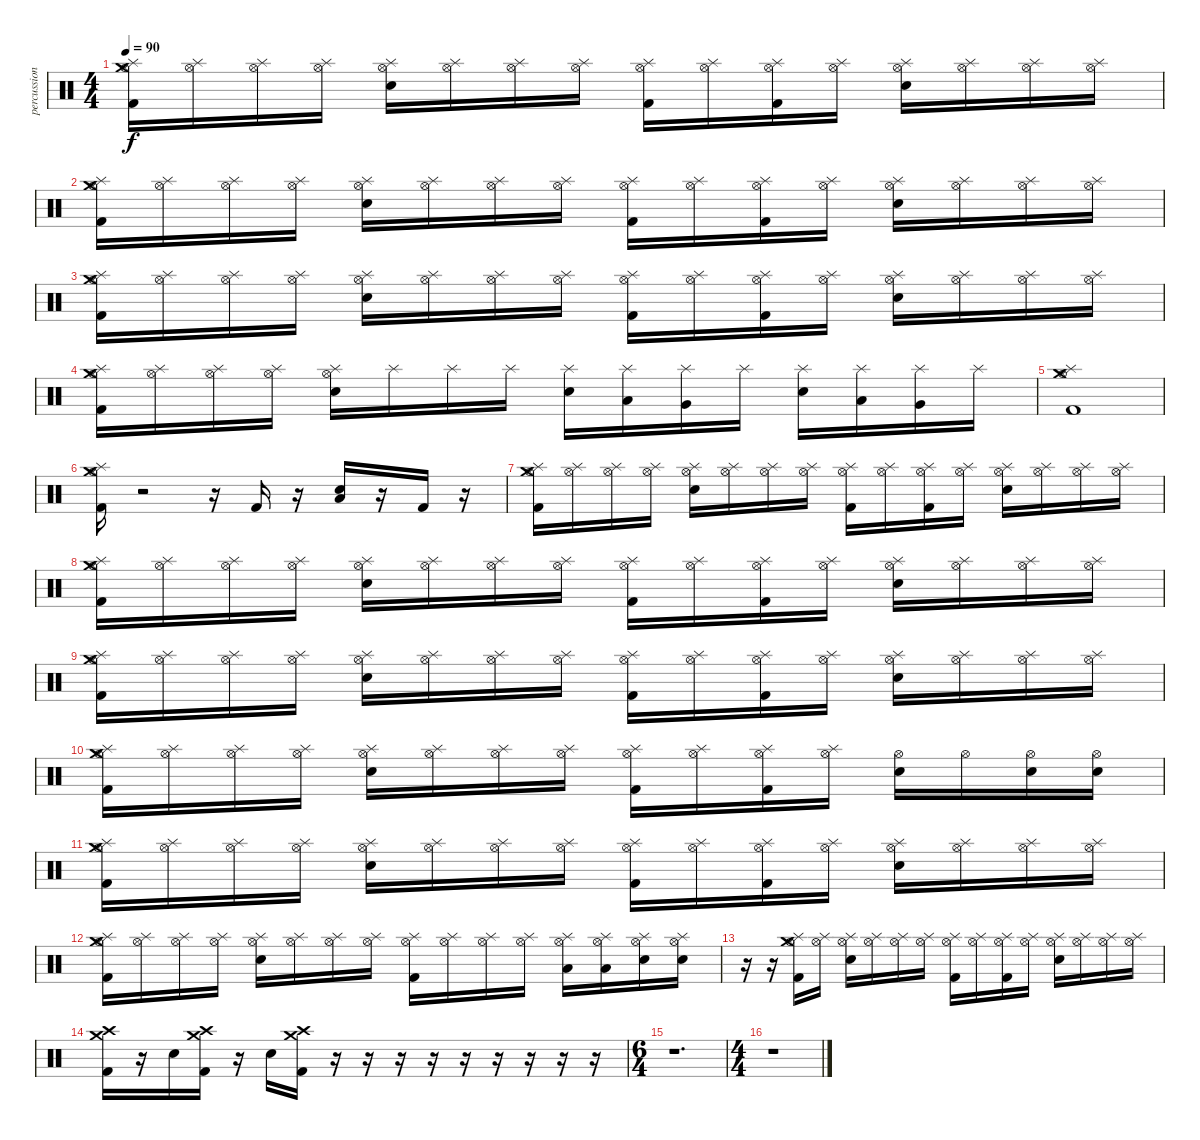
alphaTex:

\track ("percussion - longineu" "percussion") {instrument percussion}
\staff {score}
\articulation defaults
\ts (4 4)
\tempo 90
\clef neutral
\ks c
("Splash (hit)" "Hi-Hat (open)" "Crash medium (hit)" "Kick (hit) 2").16{dy f} ("Splash (hit)" "Hi-Hat (open)").16 ("Splash (hit)" "Hi-Hat (open)").16 ("Splash (hit)" "Hi-Hat (open)").16 ("Splash (hit)" "Hi-Hat (open)" "Electric Snare (hit)").16 ("Splash (hit)" "Hi-Hat (open)").16 ("Splash (hit)" "Hi-Hat (open)").16 ("Splash (hit)" "Hi-Hat (open)").16 ("Splash (hit)" "Hi-Hat (open)" "Kick (hit) 2").16 ("Splash (hit)" "Hi-Hat (open)").16 ("Splash (hit)" "Hi-Hat (open)" "Kick (hit) 2").16 ("Splash (hit)" "Hi-Hat (open)").16 ("Splash (hit)" "Hi-Hat (open)" "Electric Snare (hit)").16 ("Splash (hit)" "Hi-Hat (open)").16 ("Splash (hit)" "Hi-Hat (open)").16 ("Splash (hit)" "Hi-Hat (open)").16 |
("Splash (hit)" "Hi-Hat (open)" "Crash medium (hit)" "Kick (hit) 2").16 ("Splash (hit)" "Hi-Hat (open)").16 ("Splash (hit)" "Hi-Hat (open)").16 ("Splash (hit)" "Hi-Hat (open)").16 ("Splash (hit)" "Hi-Hat (open)" "Electric Snare (hit)").16 ("Splash (hit)" "Hi-Hat (open)").16 ("Splash (hit)" "Hi-Hat (open)").16 ("Splash (hit)" "Hi-Hat (open)").16 ("Splash (hit)" "Hi-Hat (open)" "Kick (hit) 2").16 ("Splash (hit)" "Hi-Hat (open)").16 ("Splash (hit)" "Hi-Hat (open)" "Kick (hit) 2").16 ("Splash (hit)" "Hi-Hat (open)").16 ("Splash (hit)" "Hi-Hat (open)" "Electric Snare (hit)").16 ("Splash (hit)" "Hi-Hat (open)").16 ("Splash (hit)" "Hi-Hat (open)").16 ("Splash (hit)" "Hi-Hat (open)").16 |
("Splash (hit)" "Hi-Hat (open)" "Crash medium (hit)" "Kick (hit) 2").16 ("Splash (hit)" "Hi-Hat (open)").16 ("Splash (hit)" "Hi-Hat (open)").16 ("Splash (hit)" "Hi-Hat (open)").16 ("Splash (hit)" "Hi-Hat (open)" "Electric Snare (hit)").16 ("Splash (hit)" "Hi-Hat (open)").16 ("Splash (hit)" "Hi-Hat (open)").16 ("Splash (hit)" "Hi-Hat (open)").16 ("Splash (hit)" "Hi-Hat (open)" "Kick (hit) 2").16 ("Splash (hit)" "Hi-Hat (open)").16 ("Splash (hit)" "Hi-Hat (open)" "Kick (hit) 2").16 ("Splash (hit)" "Hi-Hat (open)").16 ("Splash (hit)" "Hi-Hat (open)" "Electric Snare (hit)").16 ("Splash (hit)" "Hi-Hat (open)").16 ("Splash (hit)" "Hi-Hat (open)").16 ("Splash (hit)" "Hi-Hat (open)").16 |
("Splash (hit)" "Hi-Hat (open)" "Crash medium (hit)" "Kick (hit) 2").16 ("Splash (hit)" "Hi-Hat (open)").16 ("Splash (hit)" "Hi-Hat (open)").16 ("Splash (hit)" "Hi-Hat (open)").16 ("Splash (hit)" "Hi-Hat (open)" "Electric Snare (hit)").16 "Splash (hit)".16 "Splash (hit)".16 "Splash (hit)".16 ("Splash (hit)" "Snare (hit) 2").16 ("Splash (hit)" "Low Tom (hit)").16 ("Splash (hit)" "Very Low Tom (hit)").16 "Splash (hit)".16 ("Splash (hit)" "Snare (hit) 2").16 ("Splash (hit)" "Low Tom (hit)").16 ("Splash (hit)" "Very Low Tom (hit)").16 "Splash (hit)".16 |
("Splash (hit)" "Hi-Hat (open)" "Crash medium (hit)" "Kick (hit) 2").1 |
("Splash (hit)" "Hi-Hat (open)" "Crash medium (hit)" "Kick (hit) 2").16 r.2 r.16 "Kick (hit) 2".16 r.16 ("Low Tom (hit)" "Snare (hit) 2").16 r.16 "Kick (hit) 2".16 r.16 |
("Splash (hit)" "Hi-Hat (open)" "Crash medium (hit)" "Kick (hit) 2").16 ("Splash (hit)" "Hi-Hat (open)").16 ("Splash (hit)" "Hi-Hat (open)").16 ("Splash (hit)" "Hi-Hat (open)").16 ("Splash (hit)" "Hi-Hat (open)" "Electric Snare (hit)").16 ("Splash (hit)" "Hi-Hat (open)").16 ("Splash (hit)" "Hi-Hat (open)").16 ("Splash (hit)" "Hi-Hat (open)").16 ("Splash (hit)" "Hi-Hat (open)" "Kick (hit) 2").16 ("Splash (hit)" "Hi-Hat (open)").16 ("Splash (hit)" "Hi-Hat (open)" "Kick (hit) 2").16 ("Splash (hit)" "Hi-Hat (open)").16 ("Splash (hit)" "Hi-Hat (open)" "Electric Snare (hit)").16 ("Splash (hit)" "Hi-Hat (open)").16 ("Splash (hit)" "Hi-Hat (open)").16 ("Splash (hit)" "Hi-Hat (open)").16 |
("Splash (hit)" "Hi-Hat (open)" "Crash medium (hit)" "Kick (hit) 2").16 ("Splash (hit)" "Hi-Hat (open)").16 ("Splash (hit)" "Hi-Hat (open)").16 ("Splash (hit)" "Hi-Hat (open)").16 ("Splash (hit)" "Hi-Hat (open)" "Electric Snare (hit)").16 ("Splash (hit)" "Hi-Hat (open)").16 ("Splash (hit)" "Hi-Hat (open)").16 ("Splash (hit)" "Hi-Hat (open)").16 ("Splash (hit)" "Hi-Hat (open)" "Kick (hit) 2").16 ("Splash (hit)" "Hi-Hat (open)").16 ("Splash (hit)" "Hi-Hat (open)" "Kick (hit) 2").16 ("Splash (hit)" "Hi-Hat (open)").16 ("Splash (hit)" "Hi-Hat (open)" "Electric Snare (hit)").16 ("Splash (hit)" "Hi-Hat (open)").16 ("Splash (hit)" "Hi-Hat (open)").16 ("Splash (hit)" "Hi-Hat (open)").16 |
("Splash (hit)" "Hi-Hat (open)" "Crash medium (hit)" "Kick (hit) 2").16 ("Splash (hit)" "Hi-Hat (open)").16 ("Splash (hit)" "Hi-Hat (open)").16 ("Splash (hit)" "Hi-Hat (open)").16 ("Splash (hit)" "Hi-Hat (open)" "Electric Snare (hit)").16 ("Splash (hit)" "Hi-Hat (open)").16 ("Splash (hit)" "Hi-Hat (open)").16 ("Splash (hit)" "Hi-Hat (open)").16 ("Splash (hit)" "Hi-Hat (open)" "Kick (hit) 2").16 ("Splash (hit)" "Hi-Hat (open)").16 ("Splash (hit)" "Hi-Hat (open)" "Kick (hit) 2").16 ("Splash (hit)" "Hi-Hat (open)").16 ("Splash (hit)" "Hi-Hat (open)" "Electric Snare (hit)").16 ("Splash (hit)" "Hi-Hat (open)").16 ("Splash (hit)" "Hi-Hat (open)").16 ("Splash (hit)" "Hi-Hat (open)").16 |
("Splash (hit)" "Hi-Hat (open)" "Crash medium (hit)" "Kick (hit) 2").16 ("Splash (hit)" "Hi-Hat (open)").16 ("Splash (hit)" "Hi-Hat (open)").16 ("Splash (hit)" "Hi-Hat (open)").16 ("Splash (hit)" "Hi-Hat (open)" "Electric Snare (hit)").16 ("Splash (hit)" "Hi-Hat (open)").16 ("Splash (hit)" "Hi-Hat (open)").16 ("Splash (hit)" "Hi-Hat (open)").16 ("Splash (hit)" "Hi-Hat (open)" "Kick (hit) 2").16 ("Splash (hit)" "Hi-Hat (open)").16 ("Splash (hit)" "Hi-Hat (open)" "Kick (hit) 2").16 ("Splash (hit)" "Hi-Hat (open)").16 ("Hi-Hat (open)" "Electric Snare (hit)").16 "Hi-Hat (open)".16 ("Hi-Hat (open)" "Electric Snare (hit)").16 ("Hi-Hat (open)" "Electric Snare (hit)").16 |
("Splash (hit)" "Hi-Hat (open)" "Crash medium (hit)" "Kick (hit) 2").16 ("Splash (hit)" "Hi-Hat (open)").16 ("Splash (hit)" "Hi-Hat (open)").16 ("Splash (hit)" "Hi-Hat (open)").16 ("Splash (hit)" "Hi-Hat (open)" "Electric Snare (hit)").16 ("Splash (hit)" "Hi-Hat (open)").16 ("Splash (hit)" "Hi-Hat (open)").16 ("Splash (hit)" "Hi-Hat (open)").16 ("Splash (hit)" "Hi-Hat (open)" "Kick (hit) 2").16 ("Splash (hit)" "Hi-Hat (open)").16 ("Splash (hit)" "Hi-Hat (open)" "Kick (hit) 2").16 ("Splash (hit)" "Hi-Hat (open)").16 ("Splash (hit)" "Hi-Hat (open)" "Electric Snare (hit)").16 ("Splash (hit)" "Hi-Hat (open)").16 ("Splash (hit)" "Hi-Hat (open)").16 ("Splash (hit)" "Hi-Hat (open)").16 |
("Splash (hit)" "Hi-Hat (open)" "Crash medium (hit)" "Kick (hit) 2").16 ("Splash (hit)" "Hi-Hat (open)").16 ("Splash (hit)" "Hi-Hat (open)").16 ("Splash (hit)" "Hi-Hat (open)").16 ("Splash (hit)" "Hi-Hat (open)" "Electric Snare (hit)").16 ("Splash (hit)" "Hi-Hat (open)").16 ("Splash (hit)" "Hi-Hat (open)").16 ("Splash (hit)" "Hi-Hat (open)").16 ("Splash (hit)" "Hi-Hat (open)" "Kick (hit) 2").16 ("Splash (hit)" "Hi-Hat (open)").16 ("Splash (hit)" "Hi-Hat (open)").16 ("Splash (hit)" "Hi-Hat (open)").16 ("Splash (hit)" "Hi-Hat (open)" "Low Tom (hit)").16 ("Splash (hit)" "Hi-Hat (open)" "Low Tom (hit)").16 ("Splash (hit)" "Hi-Hat (open)" "Electric Snare (hit)").16 ("Splash (hit)" "Hi-Hat (open)" "Electric Snare (hit)").16 |
r.16 r.16 ("Splash (hit)" "Hi-Hat (open)" "Crash medium (hit)" "Kick (hit) 2").16 ("Splash (hit)" "Hi-Hat (open)").16 ("Splash (hit)" "Hi-Hat (open)" "Electric Snare (hit)").16 ("Splash (hit)" "Hi-Hat (open)").16 ("Splash (hit)" "Hi-Hat (open)").16 ("Splash (hit)" "Hi-Hat (open)").16 ("Splash (hit)" "Hi-Hat (open)" "Kick (hit) 2").16 ("Splash (hit)" "Hi-Hat (open)").16 ("Splash (hit)" "Hi-Hat (open)" "Kick (hit) 2").16 ("Splash (hit)" "Hi-Hat (open)").16 ("Splash (hit)" "Hi-Hat (open)" "Electric Snare (hit)").16 ("Splash (hit)" "Hi-Hat (open)").16 ("Splash (hit)" "Hi-Hat (open)").16 ("Splash (hit)" "Hi-Hat (open)").16 |
("Crash high (hit)" "Crash medium (hit)" "Kick (hit) 2").16 r.16 "Electric Snare (hit)".16 ("Crash high (hit)" "Crash medium (hit)" "Kick (hit) 2").16 r.16 "Electric Snare (hit)".16 ("Crash high (hit)" "Crash medium (hit)" "Kick (hit) 2").16 r.16 r.16 r.16 r.16 r.16 r.16 r.16 r.16 r.16 |
\ts (6 4)
r.1{d} |
\ts (4 4)
r.1
